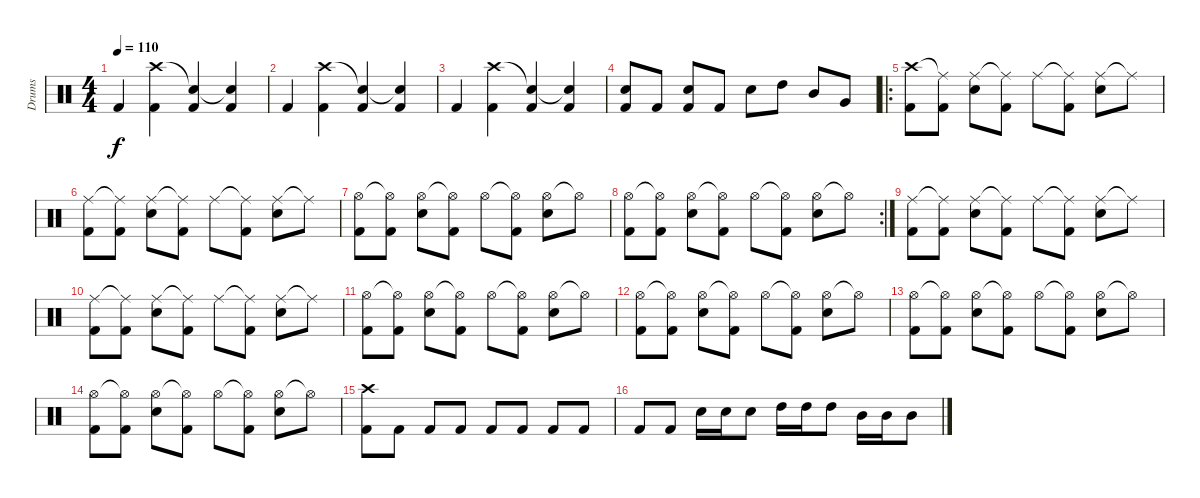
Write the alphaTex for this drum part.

\track ("Drums" "Drums") {instrument percussion}
\staff {score}
\articulation defaults
\ts (4 4)
\tempo 110
\clef neutral
\ks c "Kick (hit) 2".4{dy f}
("Crash high (hit)" "Kick (hit) 2").4 ("Snare (hit)"{t} "Kick (hit) 2").4 ("Snare (hit)"{t} "Kick (hit) 2").4 |
"Kick (hit) 2".4 ("Crash high (hit)" "Kick (hit) 2").4 ("Snare (hit)"{t} "Kick (hit) 2").4 ("Snare (hit)"{t} "Kick (hit) 2").4 |
"Kick (hit) 2".4 ("Crash high (hit)" "Kick (hit) 2").4 ("Snare (hit)"{t} "Kick (hit) 2").4 ("Snare (hit)"{t} "Kick (hit) 2").4 |
("Snare (hit) 2" "Kick (hit) 2").8 "Kick (hit) 2".8 ("Snare (hit) 2" "Kick (hit) 2").8 "Kick (hit) 2".8 "Snare (hit) 2".8 "High Tom (hit)".8 "Mid Tom (hit)".8 "Very Low Tom (hit)".8 |
\ro
("Crash high (hit)" "Kick (hit) 2").8 ("Ride (middle)"{t} "Kick (hit) 2").8 ("Ride (middle)" "Snare (hit) 2").8 ("Ride (middle)"{t} "Kick (hit) 2").8 "Ride (middle)".8 ("Ride (middle)"{t} "Kick (hit) 2").8 ("Ride (middle)" "Snare (hit) 2").8 "Ride (middle)"{t}.8 |
("Ride (middle)" "Kick (hit) 2").8 ("Ride (middle)"{t} "Kick (hit) 2").8 ("Ride (middle)" "Snare (hit) 2").8 ("Ride (middle)"{t} "Kick (hit) 2").8 "Ride (middle)".8 ("Ride (middle)"{t} "Kick (hit) 2").8 ("Ride (middle)" "Snare (hit) 2").8 "Ride (middle)"{t}.8 |
("Hi-Hat (open)" "Kick (hit) 2").8 ("Hi-Hat (open)"{t} "Kick (hit) 2").8 ("Hi-Hat (open)" "Snare (hit) 2").8 ("Hi-Hat (open)"{t} "Kick (hit) 2").8 "Hi-Hat (open)".8 ("Hi-Hat (open)"{t} "Kick (hit) 2").8 ("Hi-Hat (open)" "Snare (hit) 2").8 "Hi-Hat (open)"{t}.8 |
\rc 2
("Hi-Hat (open)" "Kick (hit) 2").8 ("Hi-Hat (open)"{t} "Kick (hit) 2").8 ("Hi-Hat (open)" "Snare (hit) 2").8 ("Hi-Hat (open)"{t} "Kick (hit) 2").8 "Hi-Hat (open)".8 ("Hi-Hat (open)"{t} "Kick (hit) 2").8 ("Hi-Hat (open)" "Snare (hit) 2").8 "Hi-Hat (open)"{t}.8 |
("Ride (middle)" "Kick (hit) 2").8 ("Ride (middle)"{t} "Kick (hit) 2").8 ("Ride (middle)" "Snare (hit) 2").8 ("Ride (middle)"{t} "Kick (hit) 2").8 "Ride (middle)".8 ("Ride (middle)"{t} "Kick (hit) 2").8 ("Ride (middle)" "Snare (hit) 2").8 "Ride (middle)"{t}.8 |
("Ride (middle)" "Kick (hit) 2").8 ("Ride (middle)"{t} "Kick (hit) 2").8 ("Ride (middle)" "Snare (hit) 2").8 ("Ride (middle)"{t} "Kick (hit) 2").8 "Ride (middle)".8 ("Ride (middle)"{t} "Kick (hit) 2").8 ("Ride (middle)" "Snare (hit) 2").8 "Ride (middle)"{t}.8 |
("Hi-Hat (open)" "Kick (hit) 2").8 ("Hi-Hat (open)"{t} "Kick (hit) 2").8 ("Hi-Hat (open)" "Snare (hit) 2").8 ("Hi-Hat (open)"{t} "Kick (hit) 2").8 "Hi-Hat (open)".8 ("Hi-Hat (open)"{t} "Kick (hit) 2").8 ("Hi-Hat (open)" "Snare (hit) 2").8 "Hi-Hat (open)"{t}.8 |
("Hi-Hat (open)" "Kick (hit) 2").8 ("Hi-Hat (open)"{t} "Kick (hit) 2").8 ("Hi-Hat (open)" "Snare (hit) 2").8 ("Hi-Hat (open)"{t} "Kick (hit) 2").8 "Hi-Hat (open)".8 ("Hi-Hat (open)"{t} "Kick (hit) 2").8 ("Hi-Hat (open)" "Snare (hit) 2").8 "Hi-Hat (open)"{t}.8 |
("Hi-Hat (open)" "Kick (hit) 2").8 ("Hi-Hat (open)"{t} "Kick (hit) 2").8 ("Hi-Hat (open)" "Snare (hit) 2").8 ("Hi-Hat (open)"{t} "Kick (hit) 2").8 "Hi-Hat (open)".8 ("Hi-Hat (open)"{t} "Kick (hit) 2").8 ("Hi-Hat (open)" "Snare (hit) 2").8 "Hi-Hat (open)"{t}.8 |
("Hi-Hat (open)" "Kick (hit) 2").8 ("Hi-Hat (open)"{t} "Kick (hit) 2").8 ("Hi-Hat (open)" "Snare (hit) 2").8 ("Hi-Hat (open)"{t} "Kick (hit) 2").8 "Hi-Hat (open)".8 ("Hi-Hat (open)"{t} "Kick (hit) 2").8 ("Hi-Hat (open)" "Snare (hit) 2").8 "Hi-Hat (open)"{t}.8 |
("Crash high (hit)" "Kick (hit) 2").8 "Kick (hit) 2".8 "Kick (hit) 2".8 "Kick (hit) 2".8 "Kick (hit) 2".8 "Kick (hit) 2".8 "Kick (hit) 2".8 "Kick (hit) 2".8 |
"Kick (hit) 2".8 "Kick (hit) 2".8 "Snare (hit) 2".16 "Snare (hit) 2".16 "Snare (hit) 2".8 "High Tom (hit)".16 "High Tom (hit)".16 "High Tom (hit)".8 "Mid Tom (hit)".16 "Mid Tom (hit)".16 "Mid Tom (hit)".8
